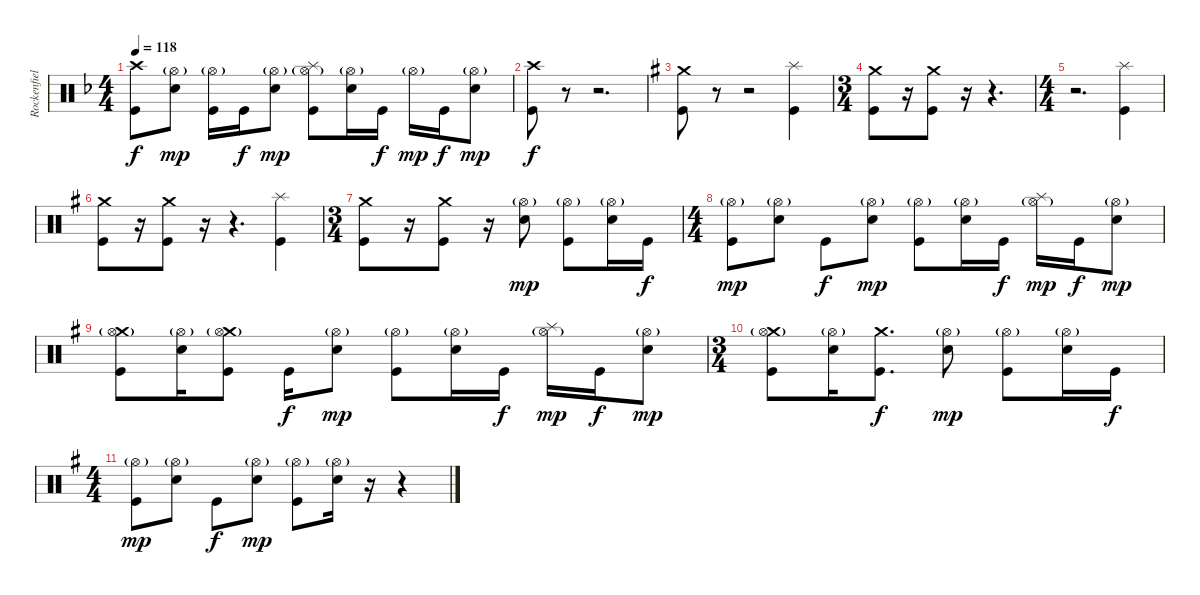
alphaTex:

\track ("Rockenfield" "Rockenfiel") {instrument percussion}
\staff {score}
\articulation defaults
\ts (4 4)
\tempo 118
\clef neutral
\ks f
("Crash high (hit)" "Kick (hit)").8{dy f} ("Hi-Hat (open)"{g} "Snare (hit) 2").8{dy mp} ("Hi-Hat (open)"{g} "Kick (hit)").16 "Kick (hit)".16{dy f} ("Hi-Hat (open)"{g} "Snare (hit) 2").8{dy mp} ("Splash (hit)" "Hi-Hat (open)"{g} "Kick (hit)").8 ("Hi-Hat (open)"{g} "Snare (hit) 2").16 "Kick (hit)".16{dy f} "Hi-Hat (open)"{g}.16{dy mp} "Kick (hit)".16{dy f} ("Hi-Hat (open)"{g} "Snare (hit) 2").8{dy mp} |
("Crash high (hit)" "Kick (hit)").8{dy f} r.8 r.2{d} |
\ks g
("Crash medium (hit)" "Kick (hit)").8 r.8 r.2 ("Splash (hit)" "Kick (hit)").4 |
\ts (3 4)
("Crash medium (hit)" "Kick (hit)").8 r.16 ("Crash medium (hit)" "Kick (hit)").8 r.16 r.4{d} |
\ts (4 4)
r.2{d} ("Splash (hit)" "Kick (hit)").4 |
("Crash medium (hit)" "Kick (hit)").8 r.16 ("Crash medium (hit)" "Kick (hit)").8 r.16 r.4{d} ("Splash (hit)" "Kick (hit)").4 |
\ts (3 4)
("Crash medium (hit)" "Kick (hit)").8 r.16 ("Crash medium (hit)" "Kick (hit)").8 r.16 ("Hi-Hat (open)"{g} "Snare (hit) 2").8{dy mp} ("Hi-Hat (open)"{g} "Kick (hit)").8 ("Hi-Hat (open)"{g} "Snare (hit) 2").16 "Kick (hit)".16{dy f} |
\ts (4 4)
("Hi-Hat (open)"{g} "Kick (hit)").8{dy mp} ("Hi-Hat (open)"{g} "Snare (hit) 2").8 "Kick (hit)".8{dy f} ("Hi-Hat (open)"{g} "Snare (hit) 2").8{dy mp} ("Hi-Hat (open)"{g} "Kick (hit)").8 ("Hi-Hat (open)"{g} "Snare (hit) 2").16 "Kick (hit)".16{dy f} ("Splash (hit)" "Hi-Hat (open)"{g}).16{dy mp} "Kick (hit)".16{dy f} ("Hi-Hat (open)"{g} "Snare (hit) 2").8{dy mp} |
("Crash medium (hit)" "Hi-Hat (open)"{g} "Kick (hit)").8 ("Hi-Hat (open)"{g} "Snare (hit) 2").16 ("Crash medium (hit)" "Hi-Hat (open)"{g} "Kick (hit)").8 "Kick (hit)".16{dy f} ("Hi-Hat (open)"{g} "Snare (hit) 2").8{dy mp} ("Hi-Hat (open)"{g} "Kick (hit)").8 ("Hi-Hat (open)"{g} "Snare (hit) 2").16 "Kick (hit)".16{dy f} ("Splash (hit)" "Hi-Hat (open)"{g}).16{dy mp} "Kick (hit)".16{dy f} ("Hi-Hat (open)"{g} "Snare (hit) 2").8{dy mp} |
\ts (3 4)
("Crash medium (hit)" "Hi-Hat (open)"{g} "Kick (hit)").8 ("Hi-Hat (open)"{g} "Snare (hit) 2").16 ("Crash medium (hit)" "Kick (hit)").8{d dy f} ("Hi-Hat (open)"{g} "Snare (hit) 2").8{dy mp} ("Hi-Hat (open)"{g} "Kick (hit)").8 ("Hi-Hat (open)"{g} "Snare (hit) 2").16 "Kick (hit)".16{dy f} |
\ts (4 4)
("Hi-Hat (open)"{g} "Kick (hit)").8{dy mp} ("Hi-Hat (open)"{g} "Snare (hit) 2").8 "Kick (hit)".8{dy f} ("Hi-Hat (open)"{g} "Snare (hit) 2").8{dy mp} ("Hi-Hat (open)"{g} "Kick (hit)").8 ("Hi-Hat (open)"{g} "Snare (hit) 2").16 r.16 r.4
